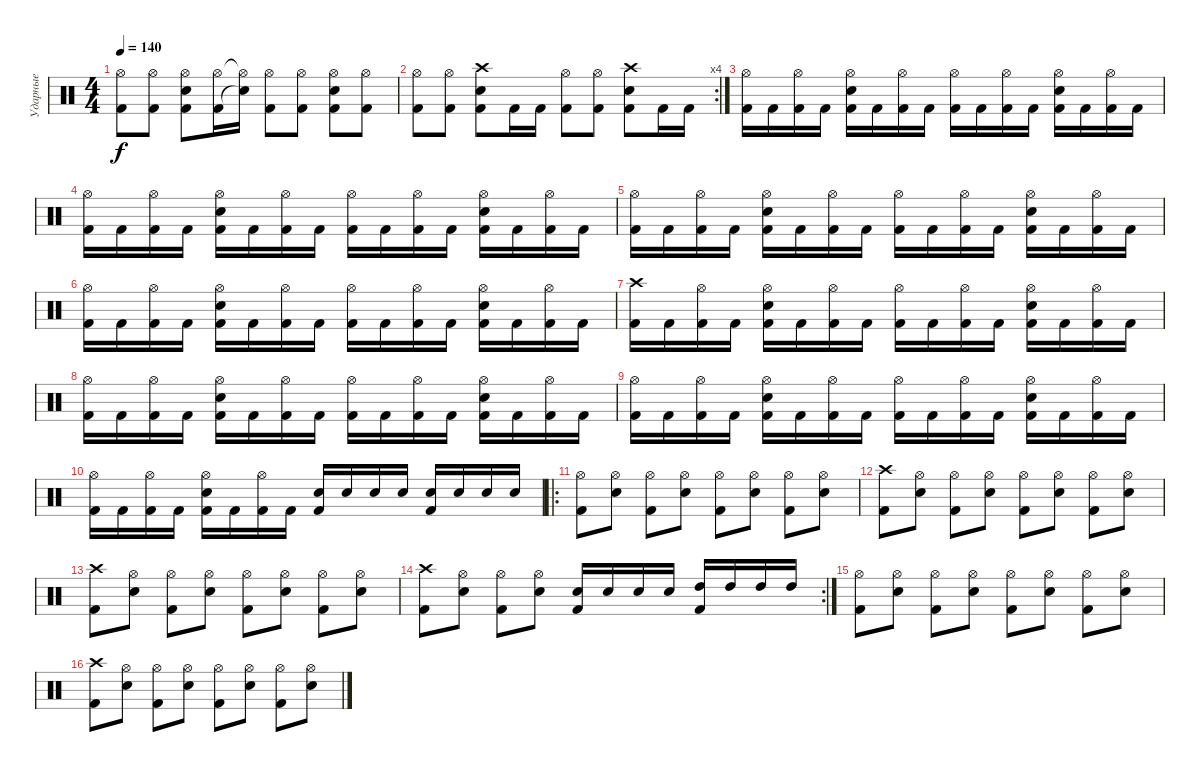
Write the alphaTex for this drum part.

\track ("Ударные" "Ударные") {instrument percussion}
\staff {score}
\articulation defaults
\ts (4 4)
\tempo 140
\clef neutral
\ks c
("Hi-Hat (open)" "Kick (hit) 2").8{dy f} ("Hi-Hat (open)" "Kick (hit) 2").8 ("Hi-Hat (open)" "Electric Snare (hit)" "Kick (hit) 2").8 ("Hi-Hat (open)" "Kick (hit) 2").16 ("Hi-Hat (open)"{t} "Electric Snare (hit)"{t}).16 ("Hi-Hat (open)" "Kick (hit) 2").8 ("Hi-Hat (open)" "Kick (hit) 2").8 ("Hi-Hat (open)" "Electric Snare (hit)" "Kick (hit) 2").8 ("Hi-Hat (open)" "Kick (hit) 2").8 |
\rc 4
("Hi-Hat (open)" "Kick (hit) 2").8 ("Hi-Hat (open)" "Kick (hit) 2").8 ("Crash high (hit)" "Electric Snare (hit)" "Kick (hit) 2").8 "Kick (hit) 2".16 "Kick (hit) 2".16 ("Hi-Hat (open)" "Kick (hit) 2").8 ("Hi-Hat (open)" "Kick (hit) 2").8 ("Crash high (hit)" "Kick (hit) 2" "Electric Snare (hit)").8 "Kick (hit) 2".16 "Kick (hit) 2".16 |
("Hi-Hat (open)" "Kick (hit) 2").16 "Kick (hit) 2".16 ("Hi-Hat (open)" "Kick (hit) 2").16 "Kick (hit) 2".16 ("Hi-Hat (open)" "Electric Snare (hit)" "Kick (hit) 2").16 "Kick (hit) 2".16 ("Hi-Hat (open)" "Kick (hit) 2").16 "Kick (hit) 2".16 ("Hi-Hat (open)" "Kick (hit) 2").16 "Kick (hit) 2".16 ("Hi-Hat (open)" "Kick (hit) 2").16 "Kick (hit) 2".16 ("Hi-Hat (open)" "Electric Snare (hit)" "Kick (hit) 2").16 "Kick (hit) 2".16 ("Hi-Hat (open)" "Kick (hit) 2").16 "Kick (hit) 2".16 |
("Hi-Hat (open)" "Kick (hit) 2").16 "Kick (hit) 2".16 ("Hi-Hat (open)" "Kick (hit) 2").16 "Kick (hit) 2".16 ("Hi-Hat (open)" "Electric Snare (hit)" "Kick (hit) 2").16 "Kick (hit) 2".16 ("Hi-Hat (open)" "Kick (hit) 2").16 "Kick (hit) 2".16 ("Hi-Hat (open)" "Kick (hit) 2").16 "Kick (hit) 2".16 ("Hi-Hat (open)" "Kick (hit) 2").16 "Kick (hit) 2".16 ("Hi-Hat (open)" "Electric Snare (hit)" "Kick (hit) 2").16 "Kick (hit) 2".16 ("Hi-Hat (open)" "Kick (hit) 2").16 "Kick (hit) 2".16 |
("Hi-Hat (open)" "Kick (hit) 2").16 "Kick (hit) 2".16 ("Hi-Hat (open)" "Kick (hit) 2").16 "Kick (hit) 2".16 ("Hi-Hat (open)" "Electric Snare (hit)" "Kick (hit) 2").16 "Kick (hit) 2".16 ("Hi-Hat (open)" "Kick (hit) 2").16 "Kick (hit) 2".16 ("Hi-Hat (open)" "Kick (hit) 2").16 "Kick (hit) 2".16 ("Hi-Hat (open)" "Kick (hit) 2").16 "Kick (hit) 2".16 ("Hi-Hat (open)" "Electric Snare (hit)" "Kick (hit) 2").16 "Kick (hit) 2".16 ("Hi-Hat (open)" "Kick (hit) 2").16 "Kick (hit) 2".16 |
("Hi-Hat (open)" "Kick (hit) 2").16 "Kick (hit) 2".16 ("Hi-Hat (open)" "Kick (hit) 2").16 "Kick (hit) 2".16 ("Hi-Hat (open)" "Electric Snare (hit)" "Kick (hit) 2").16 "Kick (hit) 2".16 ("Hi-Hat (open)" "Kick (hit) 2").16 "Kick (hit) 2".16 ("Hi-Hat (open)" "Kick (hit) 2").16 "Kick (hit) 2".16 ("Hi-Hat (open)" "Kick (hit) 2").16 "Kick (hit) 2".16 ("Hi-Hat (open)" "Electric Snare (hit)" "Kick (hit) 2").16 "Kick (hit) 2".16 ("Hi-Hat (open)" "Kick (hit) 2").16 "Kick (hit) 2".16 |
("Crash high (hit)" "Kick (hit) 2").16 "Kick (hit) 2".16 ("Hi-Hat (open)" "Kick (hit) 2").16 "Kick (hit) 2".16 ("Hi-Hat (open)" "Electric Snare (hit)" "Kick (hit) 2").16 "Kick (hit) 2".16 ("Hi-Hat (open)" "Kick (hit) 2").16 "Kick (hit) 2".16 ("Hi-Hat (open)" "Kick (hit) 2").16 "Kick (hit) 2".16 ("Hi-Hat (open)" "Kick (hit) 2").16 "Kick (hit) 2".16 ("Hi-Hat (open)" "Electric Snare (hit)" "Kick (hit) 2").16 "Kick (hit) 2".16 ("Hi-Hat (open)" "Kick (hit) 2").16 "Kick (hit) 2".16 |
("Hi-Hat (open)" "Kick (hit) 2").16 "Kick (hit) 2".16 ("Hi-Hat (open)" "Kick (hit) 2").16 "Kick (hit) 2".16 ("Hi-Hat (open)" "Electric Snare (hit)" "Kick (hit) 2").16 "Kick (hit) 2".16 ("Hi-Hat (open)" "Kick (hit) 2").16 "Kick (hit) 2".16 ("Hi-Hat (open)" "Kick (hit) 2").16 "Kick (hit) 2".16 ("Hi-Hat (open)" "Kick (hit) 2").16 "Kick (hit) 2".16 ("Hi-Hat (open)" "Electric Snare (hit)" "Kick (hit) 2").16 "Kick (hit) 2".16 ("Hi-Hat (open)" "Kick (hit) 2").16 "Kick (hit) 2".16 |
("Hi-Hat (open)" "Kick (hit) 2").16 "Kick (hit) 2".16 ("Hi-Hat (open)" "Kick (hit) 2").16 "Kick (hit) 2".16 ("Hi-Hat (open)" "Electric Snare (hit)" "Kick (hit) 2").16 "Kick (hit) 2".16 ("Hi-Hat (open)" "Kick (hit) 2").16 "Kick (hit) 2".16 ("Hi-Hat (open)" "Kick (hit) 2").16 "Kick (hit) 2".16 ("Hi-Hat (open)" "Kick (hit) 2").16 "Kick (hit) 2".16 ("Hi-Hat (open)" "Electric Snare (hit)" "Kick (hit) 2").16 "Kick (hit) 2".16 ("Hi-Hat (open)" "Kick (hit) 2").16 "Kick (hit) 2".16 |
("Hi-Hat (open)" "Kick (hit) 2").16 "Kick (hit) 2".16 ("Hi-Hat (open)" "Kick (hit) 2").16 "Kick (hit) 2".16 ("Hi-Hat (open)" "Electric Snare (hit)" "Kick (hit) 2").16 "Kick (hit) 2".16 ("Hi-Hat (open)" "Kick (hit) 2").16 "Kick (hit) 2".16 ("Electric Snare (hit)" "Kick (hit) 2").16 "Electric Snare (hit)".16 "Electric Snare (hit)".16 "Electric Snare (hit)".16 ("Electric Snare (hit)" "Kick (hit) 2").16 "Electric Snare (hit)".16 "Electric Snare (hit)".16 "Electric Snare (hit)".16 |
\ro
("Hi-Hat (open)" "Kick (hit) 2").8 ("Hi-Hat (open)" "Electric Snare (hit)").8 ("Hi-Hat (open)" "Kick (hit) 2").8 ("Hi-Hat (open)" "Electric Snare (hit)").8 ("Hi-Hat (open)" "Kick (hit) 2").8 ("Hi-Hat (open)" "Electric Snare (hit)").8 ("Hi-Hat (open)" "Kick (hit) 2").8 ("Hi-Hat (open)" "Electric Snare (hit)").8 |
("Crash high (hit)" "Kick (hit) 2").8 ("Hi-Hat (open)" "Electric Snare (hit)").8 ("Hi-Hat (open)" "Kick (hit) 2").8 ("Hi-Hat (open)" "Electric Snare (hit)").8 ("Hi-Hat (open)" "Kick (hit) 2").8 ("Hi-Hat (open)" "Electric Snare (hit)").8 ("Hi-Hat (open)" "Kick (hit) 2").8 ("Hi-Hat (open)" "Electric Snare (hit)").8 |
("Crash high (hit)" "Kick (hit) 2").8 ("Hi-Hat (open)" "Electric Snare (hit)").8 ("Hi-Hat (open)" "Kick (hit) 2").8 ("Hi-Hat (open)" "Electric Snare (hit)").8 ("Hi-Hat (open)" "Kick (hit) 2").8 ("Hi-Hat (open)" "Electric Snare (hit)").8 ("Hi-Hat (open)" "Kick (hit) 2").8 ("Hi-Hat (open)" "Electric Snare (hit)").8 |
\rc 2
("Crash high (hit)" "Kick (hit) 2").8 ("Hi-Hat (open)" "Electric Snare (hit)").8 ("Hi-Hat (open)" "Kick (hit) 2").8 ("Hi-Hat (open)" "Electric Snare (hit)").8 ("Electric Snare (hit)" "Kick (hit) 2").16 "Electric Snare (hit)".16 "Electric Snare (hit)".16 "Electric Snare (hit)".16 ("High Tom (hit)" "Kick (hit) 2").16 "High Tom (hit)".16 "High Tom (hit)".16 "High Tom (hit)".16 |
("Hi-Hat (open)" "Kick (hit) 2").8 ("Hi-Hat (open)" "Electric Snare (hit)").8 ("Hi-Hat (open)" "Kick (hit) 2").8 ("Hi-Hat (open)" "Electric Snare (hit)").8 ("Hi-Hat (open)" "Kick (hit) 2").8 ("Hi-Hat (open)" "Electric Snare (hit)").8 ("Hi-Hat (open)" "Kick (hit) 2").8 ("Hi-Hat (open)" "Electric Snare (hit)").8 |
("Crash high (hit)" "Kick (hit) 2").8 ("Hi-Hat (open)" "Electric Snare (hit)").8 ("Hi-Hat (open)" "Kick (hit) 2").8 ("Hi-Hat (open)" "Electric Snare (hit)").8 ("Hi-Hat (open)" "Kick (hit) 2").8 ("Hi-Hat (open)" "Electric Snare (hit)").8 ("Hi-Hat (open)" "Kick (hit) 2").8 ("Hi-Hat (open)" "Electric Snare (hit)").8
